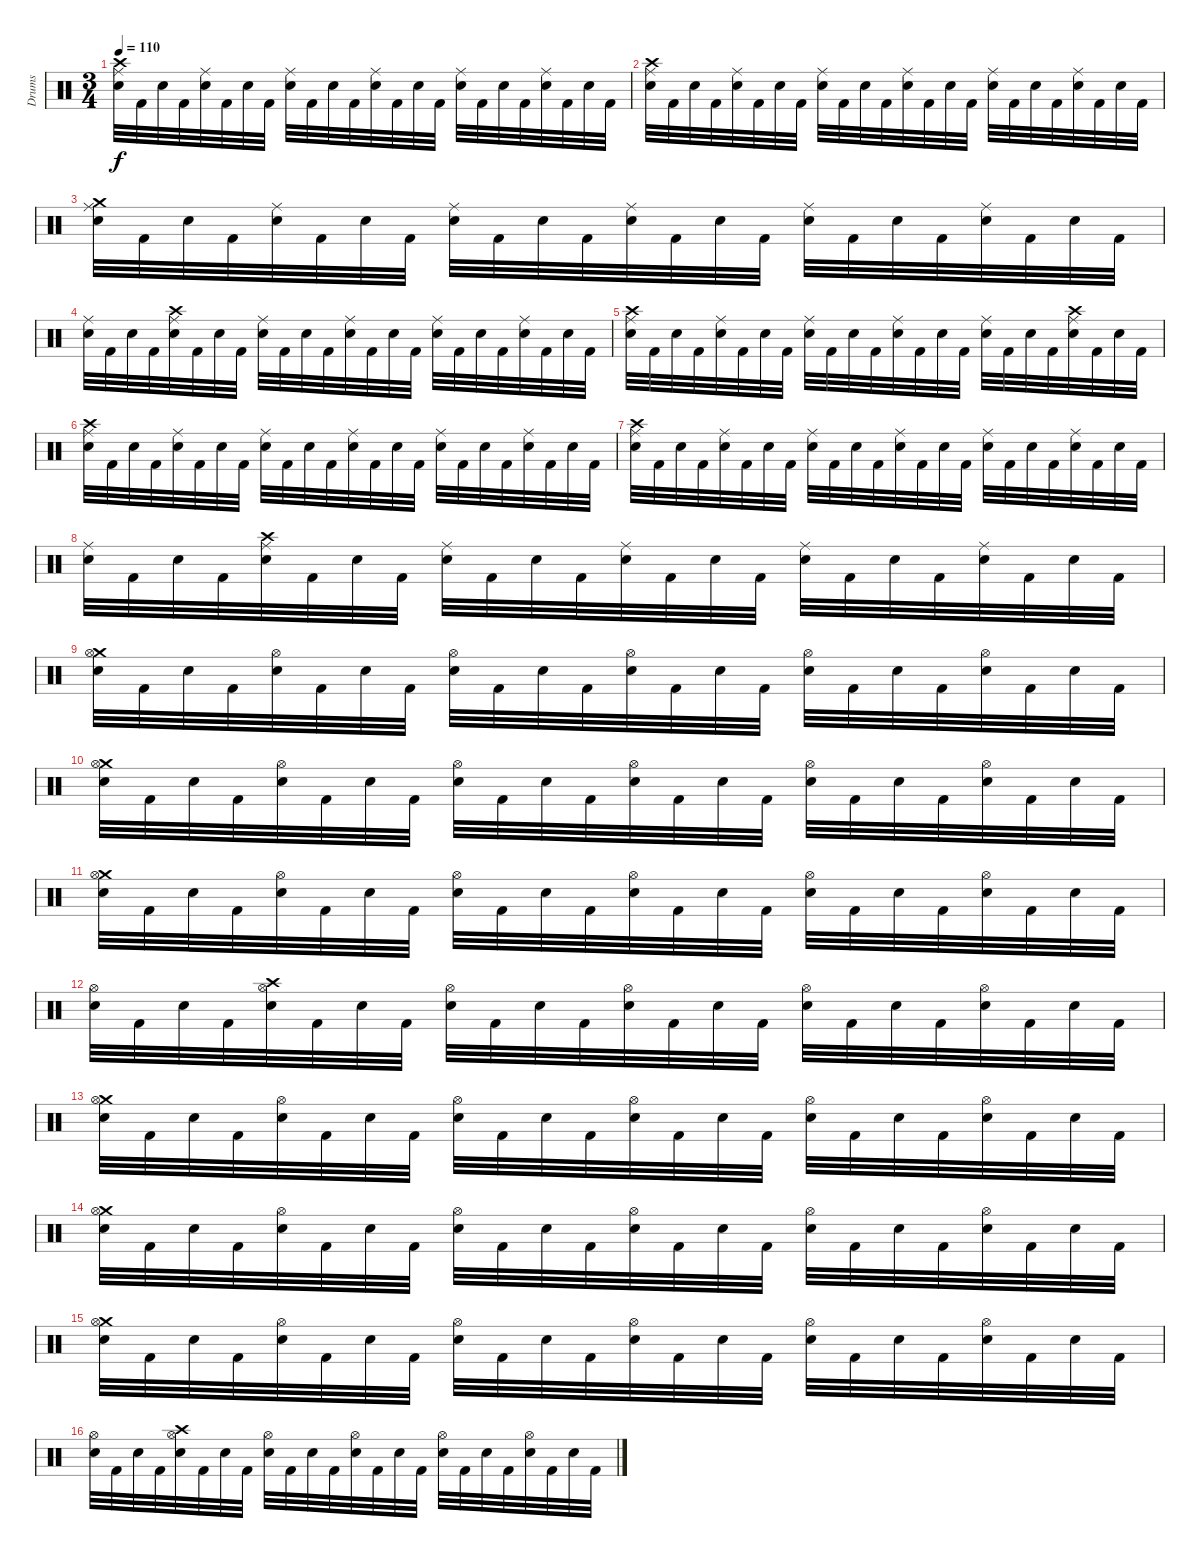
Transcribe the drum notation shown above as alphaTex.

\track ("Drums" "Drums") {instrument percussion}
\staff {score}
\articulation defaults
\ts (3 4)
\tempo 110
\clef neutral
\ks c
("Crash high (hit)" "Ride (middle)" "Electric Snare (hit)").32{dy f volume 8} "Kick (hit) 2".32 "Electric Snare (hit)".32 "Kick (hit) 2".32 ("Ride (middle)" "Electric Snare (hit)").32 "Kick (hit) 2".32 "Electric Snare (hit)".32 "Kick (hit) 2".32 ("Ride (middle)" "Electric Snare (hit)").32 "Kick (hit) 2".32 "Electric Snare (hit)".32 "Kick (hit) 2".32 ("Ride (middle)" "Electric Snare (hit)").32 "Kick (hit) 2".32 "Electric Snare (hit)".32 "Kick (hit) 2".32 ("Ride (middle)" "Electric Snare (hit)").32 "Kick (hit) 2".32 "Electric Snare (hit)".32 "Kick (hit) 2".32 ("Ride (middle)" "Electric Snare (hit)").32 "Kick (hit) 2".32 "Electric Snare (hit)".32 "Kick (hit) 2".32 |
("Crash high (hit)" "Ride (middle)" "Electric Snare (hit)").32 "Kick (hit) 2".32 "Electric Snare (hit)".32 "Kick (hit) 2".32 ("Ride (middle)" "Electric Snare (hit)").32 "Kick (hit) 2".32 "Electric Snare (hit)".32 "Kick (hit) 2".32 ("Ride (middle)" "Electric Snare (hit)").32 "Kick (hit) 2".32 "Electric Snare (hit)".32 "Kick (hit) 2".32 ("Ride (middle)" "Electric Snare (hit)").32 "Kick (hit) 2".32 "Electric Snare (hit)".32 "Kick (hit) 2".32 ("Ride (middle)" "Electric Snare (hit)").32 "Kick (hit) 2".32 "Electric Snare (hit)".32 "Kick (hit) 2".32 ("Ride (middle)" "Electric Snare (hit)").32 "Kick (hit) 2".32 "Electric Snare (hit)".32 "Kick (hit) 2".32 |
("Crash medium (hit)" "Ride (middle)" "Electric Snare (hit)").32 "Kick (hit) 2".32 "Electric Snare (hit)".32 "Kick (hit) 2".32 ("Ride (middle)" "Electric Snare (hit)").32 "Kick (hit) 2".32 "Electric Snare (hit)".32 "Kick (hit) 2".32 ("Ride (middle)" "Electric Snare (hit)").32 "Kick (hit) 2".32 "Electric Snare (hit)".32 "Kick (hit) 2".32 ("Ride (middle)" "Electric Snare (hit)").32 "Kick (hit) 2".32 "Electric Snare (hit)".32 "Kick (hit) 2".32 ("Ride (middle)" "Electric Snare (hit)").32 "Kick (hit) 2".32 "Electric Snare (hit)".32 "Kick (hit) 2".32 ("Ride (middle)" "Electric Snare (hit)").32 "Kick (hit) 2".32 "Electric Snare (hit)".32 "Kick (hit) 2".32 |
("Ride (middle)" "Electric Snare (hit)").32 "Kick (hit) 2".32 "Electric Snare (hit)".32 "Kick (hit) 2".32 ("Crash high (hit)" "Ride (middle)" "Electric Snare (hit)").32 "Kick (hit) 2".32 "Electric Snare (hit)".32 "Kick (hit) 2".32 ("Ride (middle)" "Electric Snare (hit)").32 "Kick (hit) 2".32 "Electric Snare (hit)".32 "Kick (hit) 2".32 ("Ride (middle)" "Electric Snare (hit)").32 "Kick (hit) 2".32 "Electric Snare (hit)".32 "Kick (hit) 2".32 ("Ride (middle)" "Electric Snare (hit)").32 "Kick (hit) 2".32 "Electric Snare (hit)".32 "Kick (hit) 2".32 ("Ride (middle)" "Electric Snare (hit)").32 "Kick (hit) 2".32 "Electric Snare (hit)".32 "Kick (hit) 2".32 |
("Crash high (hit)" "Ride (middle)" "Electric Snare (hit)").32 "Kick (hit) 2".32 "Electric Snare (hit)".32 "Kick (hit) 2".32 ("Ride (middle)" "Electric Snare (hit)").32 "Kick (hit) 2".32 "Electric Snare (hit)".32 "Kick (hit) 2".32 ("Ride (middle)" "Electric Snare (hit)").32 "Kick (hit) 2".32 "Electric Snare (hit)".32 "Kick (hit) 2".32 ("Ride (middle)" "Electric Snare (hit)").32 "Kick (hit) 2".32 "Electric Snare (hit)".32 "Kick (hit) 2".32 ("Ride (middle)" "Electric Snare (hit)").32 "Kick (hit) 2".32 "Electric Snare (hit)".32 "Kick (hit) 2".32 ("Crash high (hit)" "Ride (middle)" "Electric Snare (hit)").32 "Kick (hit) 2".32 "Electric Snare (hit)".32 "Kick (hit) 2".32 |
("Crash high (hit)" "Ride (middle)" "Electric Snare (hit)").32 "Kick (hit) 2".32 "Electric Snare (hit)".32 "Kick (hit) 2".32 ("Ride (middle)" "Electric Snare (hit)").32 "Kick (hit) 2".32 "Electric Snare (hit)".32 "Kick (hit) 2".32 ("Ride (middle)" "Electric Snare (hit)").32 "Kick (hit) 2".32 "Electric Snare (hit)".32 "Kick (hit) 2".32 ("Ride (middle)" "Electric Snare (hit)").32 "Kick (hit) 2".32 "Electric Snare (hit)".32 "Kick (hit) 2".32 ("Ride (middle)" "Electric Snare (hit)").32 "Kick (hit) 2".32 "Electric Snare (hit)".32 "Kick (hit) 2".32 ("Ride (middle)" "Electric Snare (hit)").32 "Kick (hit) 2".32 "Electric Snare (hit)".32 "Kick (hit) 2".32 |
("Crash high (hit)" "Ride (middle)" "Electric Snare (hit)").32 "Kick (hit) 2".32 "Electric Snare (hit)".32 "Kick (hit) 2".32 ("Ride (middle)" "Electric Snare (hit)").32 "Kick (hit) 2".32 "Electric Snare (hit)".32 "Kick (hit) 2".32 ("Ride (middle)" "Electric Snare (hit)").32 "Kick (hit) 2".32 "Electric Snare (hit)".32 "Kick (hit) 2".32 ("Ride (middle)" "Electric Snare (hit)").32 "Kick (hit) 2".32 "Electric Snare (hit)".32 "Kick (hit) 2".32 ("Ride (middle)" "Electric Snare (hit)").32 "Kick (hit) 2".32 "Electric Snare (hit)".32 "Kick (hit) 2".32 ("Ride (middle)" "Electric Snare (hit)").32 "Kick (hit) 2".32 "Electric Snare (hit)".32 "Kick (hit) 2".32 |
("Ride (middle)" "Electric Snare (hit)").32 "Kick (hit) 2".32 "Electric Snare (hit)".32 "Kick (hit) 2".32 ("Crash high (hit)" "Ride (middle)" "Electric Snare (hit)").32 "Kick (hit) 2".32 "Electric Snare (hit)".32 "Kick (hit) 2".32 ("Ride (middle)" "Electric Snare (hit)").32 "Kick (hit) 2".32 "Electric Snare (hit)".32 "Kick (hit) 2".32 ("Ride (middle)" "Electric Snare (hit)").32 "Kick (hit) 2".32 "Electric Snare (hit)".32 "Kick (hit) 2".32 ("Ride (middle)" "Electric Snare (hit)").32 "Kick (hit) 2".32 "Electric Snare (hit)".32 "Kick (hit) 2".32 ("Ride (middle)" "Electric Snare (hit)").32 "Kick (hit) 2".32 "Electric Snare (hit)".32 "Kick (hit) 2".32 |
("Crash medium (hit)" "Hi-Hat (open)" "Electric Snare (hit)").32 "Kick (hit) 2".32 "Electric Snare (hit)".32 "Kick (hit) 2".32 ("Hi-Hat (open)" "Electric Snare (hit)").32 "Kick (hit) 2".32 "Electric Snare (hit)".32 "Kick (hit) 2".32 ("Hi-Hat (open)" "Electric Snare (hit)").32 "Kick (hit) 2".32 "Electric Snare (hit)".32 "Kick (hit) 2".32 ("Hi-Hat (open)" "Electric Snare (hit)").32 "Kick (hit) 2".32 "Electric Snare (hit)".32 "Kick (hit) 2".32 ("Hi-Hat (open)" "Electric Snare (hit)").32 "Kick (hit) 2".32 "Electric Snare (hit)".32 "Kick (hit) 2".32 ("Hi-Hat (open)" "Electric Snare (hit)").32 "Kick (hit) 2".32 "Electric Snare (hit)".32 "Kick (hit) 2".32 |
("Crash medium (hit)" "Hi-Hat (open)" "Electric Snare (hit)").32 "Kick (hit) 2".32 "Electric Snare (hit)".32 "Kick (hit) 2".32 ("Hi-Hat (open)" "Electric Snare (hit)").32 "Kick (hit) 2".32 "Electric Snare (hit)".32 "Kick (hit) 2".32 ("Hi-Hat (open)" "Electric Snare (hit)").32 "Kick (hit) 2".32 "Electric Snare (hit)".32 "Kick (hit) 2".32 ("Hi-Hat (open)" "Electric Snare (hit)").32 "Kick (hit) 2".32 "Electric Snare (hit)".32 "Kick (hit) 2".32 ("Hi-Hat (open)" "Electric Snare (hit)").32 "Kick (hit) 2".32 "Electric Snare (hit)".32 "Kick (hit) 2".32 ("Hi-Hat (open)" "Electric Snare (hit)").32 "Kick (hit) 2".32 "Electric Snare (hit)".32 "Kick (hit) 2".32 |
("Crash medium (hit)" "Hi-Hat (open)" "Electric Snare (hit)").32 "Kick (hit) 2".32 "Electric Snare (hit)".32 "Kick (hit) 2".32 ("Hi-Hat (open)" "Electric Snare (hit)").32 "Kick (hit) 2".32 "Electric Snare (hit)".32 "Kick (hit) 2".32 ("Hi-Hat (open)" "Electric Snare (hit)").32 "Kick (hit) 2".32 "Electric Snare (hit)".32 "Kick (hit) 2".32 ("Hi-Hat (open)" "Electric Snare (hit)").32 "Kick (hit) 2".32 "Electric Snare (hit)".32 "Kick (hit) 2".32 ("Hi-Hat (open)" "Electric Snare (hit)").32 "Kick (hit) 2".32 "Electric Snare (hit)".32 "Kick (hit) 2".32 ("Hi-Hat (open)" "Electric Snare (hit)").32 "Kick (hit) 2".32 "Electric Snare (hit)".32 "Kick (hit) 2".32 |
("Hi-Hat (open)" "Electric Snare (hit)").32 "Kick (hit) 2".32 "Electric Snare (hit)".32 "Kick (hit) 2".32 ("Crash high (hit)" "Hi-Hat (open)" "Electric Snare (hit)").32 "Kick (hit) 2".32 "Electric Snare (hit)".32 "Kick (hit) 2".32 ("Hi-Hat (open)" "Electric Snare (hit)").32 "Kick (hit) 2".32 "Electric Snare (hit)".32 "Kick (hit) 2".32 ("Hi-Hat (open)" "Electric Snare (hit)").32 "Kick (hit) 2".32 "Electric Snare (hit)".32 "Kick (hit) 2".32 ("Hi-Hat (open)" "Electric Snare (hit)").32 "Kick (hit) 2".32 "Electric Snare (hit)".32 "Kick (hit) 2".32 ("Hi-Hat (open)" "Electric Snare (hit)").32 "Kick (hit) 2".32 "Electric Snare (hit)".32 "Kick (hit) 2".32 |
("Crash medium (hit)" "Hi-Hat (open)" "Electric Snare (hit)").32 "Kick (hit) 2".32 "Electric Snare (hit)".32 "Kick (hit) 2".32 ("Hi-Hat (open)" "Electric Snare (hit)").32 "Kick (hit) 2".32 "Electric Snare (hit)".32 "Kick (hit) 2".32 ("Hi-Hat (open)" "Electric Snare (hit)").32 "Kick (hit) 2".32 "Electric Snare (hit)".32 "Kick (hit) 2".32 ("Hi-Hat (open)" "Electric Snare (hit)").32 "Kick (hit) 2".32 "Electric Snare (hit)".32 "Kick (hit) 2".32 ("Hi-Hat (open)" "Electric Snare (hit)").32 "Kick (hit) 2".32 "Electric Snare (hit)".32 "Kick (hit) 2".32 ("Hi-Hat (open)" "Electric Snare (hit)").32 "Kick (hit) 2".32 "Electric Snare (hit)".32 "Kick (hit) 2".32 |
("Crash medium (hit)" "Hi-Hat (open)" "Electric Snare (hit)").32 "Kick (hit) 2".32 "Electric Snare (hit)".32 "Kick (hit) 2".32 ("Hi-Hat (open)" "Electric Snare (hit)").32 "Kick (hit) 2".32 "Electric Snare (hit)".32 "Kick (hit) 2".32 ("Hi-Hat (open)" "Electric Snare (hit)").32 "Kick (hit) 2".32 "Electric Snare (hit)".32 "Kick (hit) 2".32 ("Hi-Hat (open)" "Electric Snare (hit)").32 "Kick (hit) 2".32 "Electric Snare (hit)".32 "Kick (hit) 2".32 ("Hi-Hat (open)" "Electric Snare (hit)").32 "Kick (hit) 2".32 "Electric Snare (hit)".32 "Kick (hit) 2".32 ("Hi-Hat (open)" "Electric Snare (hit)").32 "Kick (hit) 2".32 "Electric Snare (hit)".32 "Kick (hit) 2".32 |
("Crash medium (hit)" "Hi-Hat (open)" "Electric Snare (hit)").32 "Kick (hit) 2".32 "Electric Snare (hit)".32 "Kick (hit) 2".32 ("Hi-Hat (open)" "Electric Snare (hit)").32 "Kick (hit) 2".32 "Electric Snare (hit)".32 "Kick (hit) 2".32 ("Hi-Hat (open)" "Electric Snare (hit)").32 "Kick (hit) 2".32 "Electric Snare (hit)".32 "Kick (hit) 2".32 ("Hi-Hat (open)" "Electric Snare (hit)").32 "Kick (hit) 2".32 "Electric Snare (hit)".32 "Kick (hit) 2".32 ("Hi-Hat (open)" "Electric Snare (hit)").32 "Kick (hit) 2".32 "Electric Snare (hit)".32 "Kick (hit) 2".32 ("Hi-Hat (open)" "Electric Snare (hit)").32 "Kick (hit) 2".32 "Electric Snare (hit)".32 "Kick (hit) 2".32 |
("Hi-Hat (open)" "Electric Snare (hit)").32 "Kick (hit) 2".32 "Electric Snare (hit)".32 "Kick (hit) 2".32 ("Crash high (hit)" "Hi-Hat (open)" "Electric Snare (hit)").32 "Kick (hit) 2".32 "Electric Snare (hit)".32 "Kick (hit) 2".32 ("Hi-Hat (open)" "Electric Snare (hit)").32 "Kick (hit) 2".32 "Electric Snare (hit)".32 "Kick (hit) 2".32 ("Hi-Hat (open)" "Electric Snare (hit)").32 "Kick (hit) 2".32 "Electric Snare (hit)".32 "Kick (hit) 2".32 ("Hi-Hat (open)" "Electric Snare (hit)").32 "Kick (hit) 2".32 "Electric Snare (hit)".32 "Kick (hit) 2".32 ("Hi-Hat (open)" "Electric Snare (hit)").32 "Kick (hit) 2".32 "Electric Snare (hit)".32 "Kick (hit) 2".32
